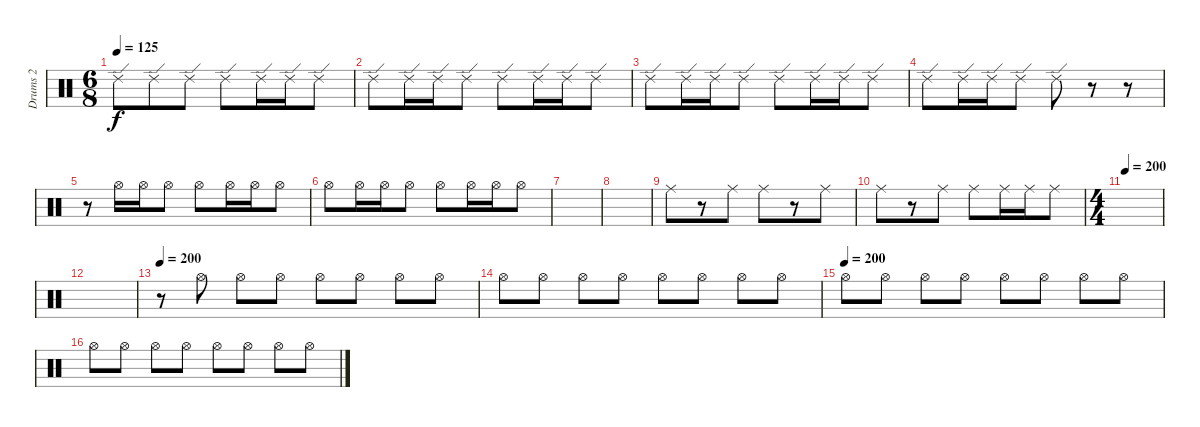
\track ("Drums 2" "Drums 2") {instrument percussion}
\staff {score}
\articulation defaults
\ts (6 8)
\tempo 125
\clef neutral
\ks c "Ride (edge) 2".8{dy f} "Ride (edge) 2".8 "Ride (edge) 2".8 "Ride (edge) 2".8 "Ride (edge) 2".16 "Ride (edge) 2".16 "Ride (edge) 2".8
|
"Ride (edge) 2".8 "Ride (edge) 2".16 "Ride (edge) 2".16 "Ride (edge) 2".8 "Ride (edge) 2".8 "Ride (edge) 2".16 "Ride (edge) 2".16 "Ride (edge) 2".8 |
"Ride (edge) 2".8 "Ride (edge) 2".16 "Ride (edge) 2".16 "Ride (edge) 2".8 "Ride (edge) 2".8 "Ride (edge) 2".16 "Ride (edge) 2".16 "Ride (edge) 2".8 |
"Ride (edge) 2".8 "Ride (edge) 2".16 "Ride (edge) 2".16 "Ride (edge) 2".8 "Ride (edge) 2".8 r.8 r.8 |
r.8 "Hi-Hat (open)".16 "Hi-Hat (open)".16 "Hi-Hat (open)".8 "Hi-Hat (open)".8 "Hi-Hat (open)".16 "Hi-Hat (open)".16 "Hi-Hat (open)".8 |
"Hi-Hat (open)".8 "Hi-Hat (open)".16 "Hi-Hat (open)".16 "Hi-Hat (open)".8 "Hi-Hat (open)".8 "Hi-Hat (open)".16 "Hi-Hat (open)".16 "Hi-Hat (open)".8 |
|
|
"Ride (middle)".8 r.8 "Ride (middle)".8 "Ride (middle)".8 r.8 "Ride (middle)".8 |
"Ride (middle)".8 r.8 "Ride (middle)".8 "Ride (middle)".8 "Ride (middle)".16 "Ride (middle)".16 "Ride (middle)".8 |
\ts (4 4)
\tempo 200
|
|
\tempo 200
r.8 "Hi-Hat (open)".8 "Hi-Hat (open)".8 "Hi-Hat (open)".8 "Hi-Hat (open)".8 "Hi-Hat (open)".8 "Hi-Hat (open)".8 "Hi-Hat (open)".8 |
"Hi-Hat (open)".8 "Hi-Hat (open)".8 "Hi-Hat (open)".8 "Hi-Hat (open)".8 "Hi-Hat (open)".8 "Hi-Hat (open)".8 "Hi-Hat (open)".8 "Hi-Hat (open)".8 |
\tempo (200)
"Hi-Hat (open)".8 "Hi-Hat (open)".8 "Hi-Hat (open)".8 "Hi-Hat (open)".8 "Hi-Hat (open)".8 "Hi-Hat (open)".8 "Hi-Hat (open)".8 "Hi-Hat (open)".8 |
"Hi-Hat (open)".8 "Hi-Hat (open)".8 "Hi-Hat (open)".8 "Hi-Hat (open)".8 "Hi-Hat (open)".8 "Hi-Hat (open)".8 "Hi-Hat (open)".8 "Hi-Hat (open)".8
